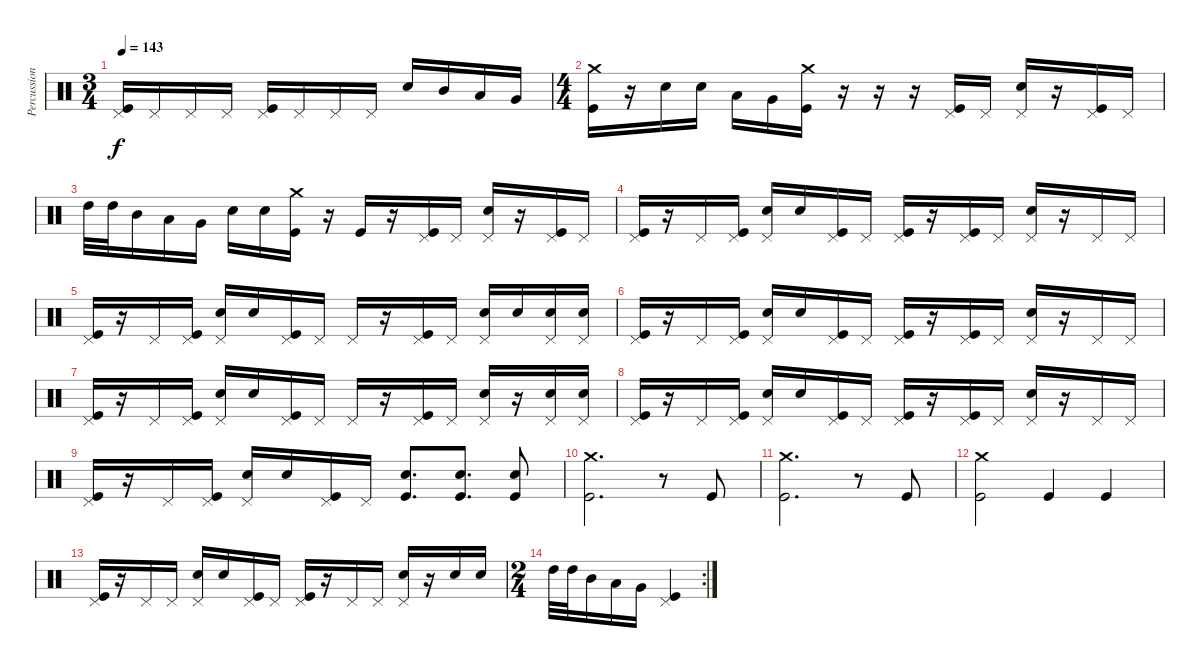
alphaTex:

\track ("Percussion" "Percussion") {instrument percussion}
\staff {score}
\articulation defaults
\ts (3 4)
\tempo 143
\clef neutral
\ks c
("Pedal Hi-Hat (hit)" "Kick (hit)").16{dy f} "Pedal Hi-Hat (hit)".16 "Pedal Hi-Hat (hit)".16 "Pedal Hi-Hat (hit)".16 ("Pedal Hi-Hat (hit)" "Kick (hit)").16 "Pedal Hi-Hat (hit)".16 "Pedal Hi-Hat (hit)".16 "Pedal Hi-Hat (hit)".16 "Electric Snare (hit)".16 "Mid Tom (hit)".16 "Low Tom (hit)".16 "Very Low Tom (hit)".16 |
\ts (4 4)
("Crash medium (hit)" "Kick (hit)").16 r.16 "Electric Snare (hit)".16 "Electric Snare (hit)".16 "Low Tom (hit)".16 "Very Low Tom (hit)".16 ("Crash medium (hit)" "Kick (hit)").16 r.16 r.16 r.16 ("Pedal Hi-Hat (hit)" "Kick (hit)").16 "Pedal Hi-Hat (hit)".16 ("Pedal Hi-Hat (hit)" "Electric Snare (hit)").16 r.16 ("Pedal Hi-Hat (hit)" "Kick (hit)").16 "Pedal Hi-Hat (hit)".16 |
"High Tom (hit)".32 "High Tom (hit)".32 "Mid Tom (hit)".16 "Low Tom (hit)".16 "Very Low Tom (hit)".16 "Electric Snare (hit)".16 "Electric Snare (hit)".16 ("Crash medium (hit)" "Kick (hit)").16 r.16 "Kick (hit)".16 r.16 ("Pedal Hi-Hat (hit)" "Kick (hit)").16 "Pedal Hi-Hat (hit)".16 ("Pedal Hi-Hat (hit)" "Electric Snare (hit)").16 r.16 ("Pedal Hi-Hat (hit)" "Kick (hit)").16 "Pedal Hi-Hat (hit)".16 |
("Pedal Hi-Hat (hit)" "Kick (hit)").16 r.16 "Pedal Hi-Hat (hit)".16 ("Pedal Hi-Hat (hit)" "Kick (hit)").16 ("Pedal Hi-Hat (hit)" "Electric Snare (hit)").16 "Electric Snare (hit)".16 ("Pedal Hi-Hat (hit)" "Kick (hit)").16 "Pedal Hi-Hat (hit)".16 ("Pedal Hi-Hat (hit)" "Kick (hit)").16 r.16 ("Pedal Hi-Hat (hit)" "Kick (hit)").16 "Pedal Hi-Hat (hit)".16 ("Pedal Hi-Hat (hit)" "Electric Snare (hit)").16 r.16 "Pedal Hi-Hat (hit)".16 "Pedal Hi-Hat (hit)".16 |
("Pedal Hi-Hat (hit)" "Kick (hit)").16 r.16 "Pedal Hi-Hat (hit)".16 ("Pedal Hi-Hat (hit)" "Kick (hit)").16 ("Pedal Hi-Hat (hit)" "Electric Snare (hit)").16 "Electric Snare (hit)".16 ("Pedal Hi-Hat (hit)" "Kick (hit)").16 "Pedal Hi-Hat (hit)".16 "Pedal Hi-Hat (hit)".16 r.16 ("Pedal Hi-Hat (hit)" "Kick (hit)").16 "Pedal Hi-Hat (hit)".16 ("Pedal Hi-Hat (hit)" "Electric Snare (hit)").16 "Electric Snare (hit)".16 ("Pedal Hi-Hat (hit)" "Electric Snare (hit)").16 ("Pedal Hi-Hat (hit)" "Electric Snare (hit)").16 |
("Pedal Hi-Hat (hit)" "Kick (hit)").16 r.16 "Pedal Hi-Hat (hit)".16 ("Pedal Hi-Hat (hit)" "Kick (hit)").16 ("Pedal Hi-Hat (hit)" "Electric Snare (hit)").16 "Electric Snare (hit)".16 ("Pedal Hi-Hat (hit)" "Kick (hit)").16 "Pedal Hi-Hat (hit)".16 ("Pedal Hi-Hat (hit)" "Kick (hit)").16 r.16 ("Pedal Hi-Hat (hit)" "Kick (hit)").16 "Pedal Hi-Hat (hit)".16 ("Pedal Hi-Hat (hit)" "Electric Snare (hit)").16 r.16 "Pedal Hi-Hat (hit)".16 "Pedal Hi-Hat (hit)".16 |
("Pedal Hi-Hat (hit)" "Kick (hit)").16 r.16 "Pedal Hi-Hat (hit)".16 ("Pedal Hi-Hat (hit)" "Kick (hit)").16 ("Pedal Hi-Hat (hit)" "Electric Snare (hit)").16 "Electric Snare (hit)".16 ("Pedal Hi-Hat (hit)" "Kick (hit)").16 "Pedal Hi-Hat (hit)".16 "Pedal Hi-Hat (hit)".16 r.16 ("Pedal Hi-Hat (hit)" "Kick (hit)").16 "Pedal Hi-Hat (hit)".16 ("Pedal Hi-Hat (hit)" "Electric Snare (hit)").16 r.16 ("Pedal Hi-Hat (hit)" "Electric Snare (hit)").16 ("Pedal Hi-Hat (hit)" "Electric Snare (hit)").16 |
("Pedal Hi-Hat (hit)" "Kick (hit)").16 r.16 "Pedal Hi-Hat (hit)".16 ("Pedal Hi-Hat (hit)" "Kick (hit)").16 ("Pedal Hi-Hat (hit)" "Electric Snare (hit)").16 "Electric Snare (hit)".16 ("Pedal Hi-Hat (hit)" "Kick (hit)").16 "Pedal Hi-Hat (hit)".16 ("Pedal Hi-Hat (hit)" "Kick (hit)").16 r.16 ("Pedal Hi-Hat (hit)" "Kick (hit)").16 "Pedal Hi-Hat (hit)".16 ("Pedal Hi-Hat (hit)" "Electric Snare (hit)").16 r.16 "Pedal Hi-Hat (hit)".16 "Pedal Hi-Hat (hit)".16 |
("Pedal Hi-Hat (hit)" "Kick (hit)").16 r.16 "Pedal Hi-Hat (hit)".16 ("Pedal Hi-Hat (hit)" "Kick (hit)").16 ("Pedal Hi-Hat (hit)" "Electric Snare (hit)").16 "Electric Snare (hit)".16 ("Pedal Hi-Hat (hit)" "Kick (hit)").16 "Pedal Hi-Hat (hit)".16 ("Electric Snare (hit)" "Kick (hit)").8{d} ("Electric Snare (hit)" "Kick (hit)").8{d} ("Electric Snare (hit)" "Kick (hit)").8 |
("Crash medium (hit)" "Kick (hit)").2{d} r.8 "Kick (hit)".8 |
("Crash medium (hit)" "Kick (hit)").2{d} r.8 "Kick (hit)".8 |
("Crash medium (hit)" "Kick (hit)").2 "Kick (hit)".4 "Kick (hit)".4 |
("Pedal Hi-Hat (hit)" "Kick (hit)").16 r.16 "Pedal Hi-Hat (hit)".16 "Pedal Hi-Hat (hit)".16 ("Pedal Hi-Hat (hit)" "Electric Snare (hit)").16 "Electric Snare (hit)".16 ("Pedal Hi-Hat (hit)" "Kick (hit)").16 "Pedal Hi-Hat (hit)".16 ("Pedal Hi-Hat (hit)" "Kick (hit)").16 r.16 "Pedal Hi-Hat (hit)".16 "Pedal Hi-Hat (hit)".16 ("Pedal Hi-Hat (hit)" "Electric Snare (hit)").16 r.16 "Electric Snare (hit)".16 "Electric Snare (hit)".16 |
\rc 2
\ts (2 4)
"High Tom (hit)".32 "High Tom (hit)".32 "Mid Tom (hit)".16 "Low Tom (hit)".16 "Very Low Tom (hit)".16 ("Pedal Hi-Hat (hit)" "Kick (hit)").4
